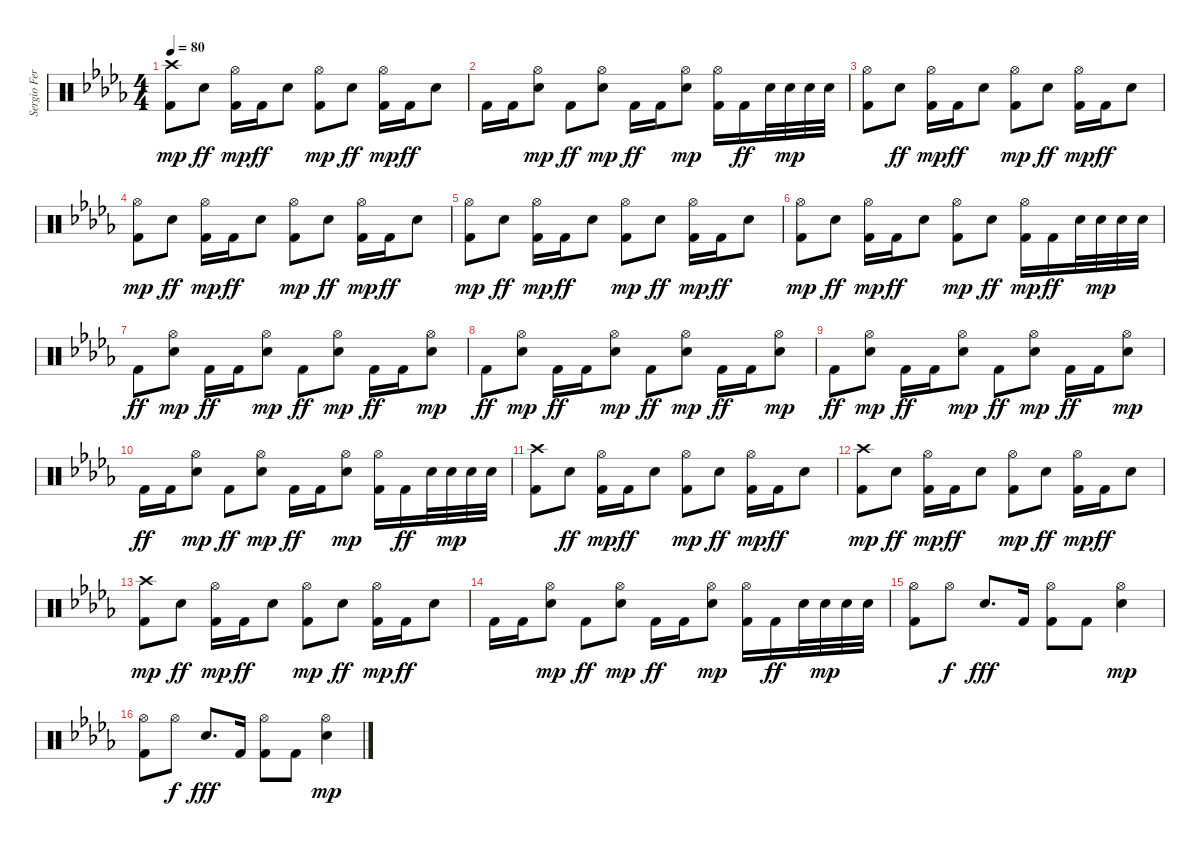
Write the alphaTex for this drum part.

\track ("Sergio Fernandez \"Taz\"" "Sergio Fer") {instrument percussion}
\staff {score}
\articulation defaults
\ts (4 4)
\tempo 80
\clef neutral
\ks bbminor
("Kick (hit) 2" "Crash high (hit)").8{dy mp} "Electric Snare (hit)".8{dy ff} ("Kick (hit) 2" "Hi-Hat (open)").16{dy mp} "Kick (hit) 2".16{dy ff} "Electric Snare (hit)".8 ("Kick (hit) 2" "Hi-Hat (open)").8{dy mp} "Electric Snare (hit)".8{dy ff} ("Kick (hit) 2" "Hi-Hat (open)").16{dy mp} "Kick (hit) 2".16{dy ff} "Electric Snare (hit)".8 |
"Kick (hit) 2".16 "Kick (hit) 2".16 ("Electric Snare (hit)" "Hi-Hat (open)").8{dy mp} "Kick (hit) 2".8{dy ff} ("Electric Snare (hit)" "Hi-Hat (open)").8{dy mp} "Kick (hit) 2".16{dy ff} "Kick (hit) 2".16 ("Electric Snare (hit)" "Hi-Hat (open)").8{dy mp} ("Kick (hit) 2" "Hi-Hat (open)").16 "Kick (hit) 2".16{dy ff} "Electric Snare (hit)".32 "Electric Snare (hit)".32{dy mp} "Electric Snare (hit)".32 "Electric Snare (hit)".32 |
("Kick (hit) 2" "Hi-Hat (open)").8 "Electric Snare (hit)".8{dy ff} ("Kick (hit) 2" "Hi-Hat (open)").16{dy mp} "Kick (hit) 2".16{dy ff} "Electric Snare (hit)".8 ("Kick (hit) 2" "Hi-Hat (open)").8{dy mp} "Electric Snare (hit)".8{dy ff} ("Kick (hit) 2" "Hi-Hat (open)").16{dy mp} "Kick (hit) 2".16{dy ff} "Electric Snare (hit)".8 |
("Kick (hit) 2" "Hi-Hat (open)").8{dy mp} "Electric Snare (hit)".8{dy ff} ("Kick (hit) 2" "Hi-Hat (open)").16{dy mp} "Kick (hit) 2".16{dy ff} "Electric Snare (hit)".8 ("Kick (hit) 2" "Hi-Hat (open)").8{dy mp} "Electric Snare (hit)".8{dy ff} ("Kick (hit) 2" "Hi-Hat (open)").16{dy mp} "Kick (hit) 2".16{dy ff} "Electric Snare (hit)".8 |
("Kick (hit) 2" "Hi-Hat (open)").8{dy mp} "Electric Snare (hit)".8{dy ff} ("Kick (hit) 2" "Hi-Hat (open)").16{dy mp} "Kick (hit) 2".16{dy ff} "Electric Snare (hit)".8 ("Kick (hit) 2" "Hi-Hat (open)").8{dy mp} "Electric Snare (hit)".8{dy ff} ("Kick (hit) 2" "Hi-Hat (open)").16{dy mp} "Kick (hit) 2".16{dy ff} "Electric Snare (hit)".8 |
("Kick (hit) 2" "Hi-Hat (open)").8{dy mp} "Electric Snare (hit)".8{dy ff} ("Kick (hit) 2" "Hi-Hat (open)").16{dy mp} "Kick (hit) 2".16{dy ff} "Electric Snare (hit)".8 ("Kick (hit) 2" "Hi-Hat (open)").8{dy mp} "Electric Snare (hit)".8{dy ff} ("Kick (hit) 2" "Hi-Hat (open)").16{dy mp} "Kick (hit) 2".16{dy ff} "Electric Snare (hit)".32 "Electric Snare (hit)".32{dy mp} "Electric Snare (hit)".32 "Electric Snare (hit)".32 |
"Kick (hit) 2".8{dy ff} ("Electric Snare (hit)" "Hi-Hat (open)").8{dy mp} "Kick (hit) 2".16{dy ff} "Kick (hit) 2".16 ("Electric Snare (hit)" "Hi-Hat (open)").8{dy mp} "Kick (hit) 2".8{dy ff} ("Electric Snare (hit)" "Hi-Hat (open)").8{dy mp} "Kick (hit) 2".16{dy ff} "Kick (hit) 2".16 ("Electric Snare (hit)" "Hi-Hat (open)").8{dy mp} |
"Kick (hit) 2".8{dy ff} ("Electric Snare (hit)" "Hi-Hat (open)").8{dy mp} "Kick (hit) 2".16{dy ff} "Kick (hit) 2".16 ("Electric Snare (hit)" "Hi-Hat (open)").8{dy mp} "Kick (hit) 2".8{dy ff} ("Electric Snare (hit)" "Hi-Hat (open)").8{dy mp} "Kick (hit) 2".16{dy ff} "Kick (hit) 2".16 ("Electric Snare (hit)" "Hi-Hat (open)").8{dy mp} |
"Kick (hit) 2".8{dy ff} ("Electric Snare (hit)" "Hi-Hat (open)").8{dy mp} "Kick (hit) 2".16{dy ff} "Kick (hit) 2".16 ("Electric Snare (hit)" "Hi-Hat (open)").8{dy mp} "Kick (hit) 2".8{dy ff} ("Electric Snare (hit)" "Hi-Hat (open)").8{dy mp} "Kick (hit) 2".16{dy ff} "Kick (hit) 2".16 ("Electric Snare (hit)" "Hi-Hat (open)").8{dy mp} |
"Kick (hit) 2".16{dy ff} "Kick (hit) 2".16 ("Electric Snare (hit)" "Hi-Hat (open)").8{dy mp} "Kick (hit) 2".8{dy ff} ("Electric Snare (hit)" "Hi-Hat (open)").8{dy mp} "Kick (hit) 2".16{dy ff} "Kick (hit) 2".16 ("Electric Snare (hit)" "Hi-Hat (open)").8{dy mp} ("Kick (hit) 2" "Hi-Hat (open)").16 "Kick (hit) 2".16{dy ff} "Electric Snare (hit)".32 "Electric Snare (hit)".32{dy mp} "Electric Snare (hit)".32 "Electric Snare (hit)".32 |
("Kick (hit) 2" "Crash high (hit)").8 "Electric Snare (hit)".8{dy ff} ("Kick (hit) 2" "Hi-Hat (open)").16{dy mp} "Kick (hit) 2".16{dy ff} "Electric Snare (hit)".8 ("Kick (hit) 2" "Hi-Hat (open)").8{dy mp} "Electric Snare (hit)".8{dy ff} ("Kick (hit) 2" "Hi-Hat (open)").16{dy mp} "Kick (hit) 2".16{dy ff} "Electric Snare (hit)".8 |
("Kick (hit) 2" "Crash high (hit)").8{dy mp} "Electric Snare (hit)".8{dy ff} ("Kick (hit) 2" "Hi-Hat (open)").16{dy mp} "Kick (hit) 2".16{dy ff} "Electric Snare (hit)".8 ("Kick (hit) 2" "Hi-Hat (open)").8{dy mp} "Electric Snare (hit)".8{dy ff} ("Kick (hit) 2" "Hi-Hat (open)").16{dy mp} "Kick (hit) 2".16{dy ff} "Electric Snare (hit)".8 |
("Kick (hit) 2" "Crash high (hit)").8{dy mp} "Electric Snare (hit)".8{dy ff} ("Kick (hit) 2" "Hi-Hat (open)").16{dy mp} "Kick (hit) 2".16{dy ff} "Electric Snare (hit)".8 ("Kick (hit) 2" "Hi-Hat (open)").8{dy mp} "Electric Snare (hit)".8{dy ff} ("Kick (hit) 2" "Hi-Hat (open)").16{dy mp} "Kick (hit) 2".16{dy ff} "Electric Snare (hit)".8 |
"Kick (hit) 2".16 "Kick (hit) 2".16 ("Electric Snare (hit)" "Hi-Hat (open)").8{dy mp} "Kick (hit) 2".8{dy ff} ("Electric Snare (hit)" "Hi-Hat (open)").8{dy mp} "Kick (hit) 2".16{dy ff} "Kick (hit) 2".16 ("Electric Snare (hit)" "Hi-Hat (open)").8{dy mp} ("Kick (hit) 2" "Hi-Hat (open)").16 "Kick (hit) 2".16{dy ff} "Electric Snare (hit)".32 "Electric Snare (hit)".32{dy mp} "Electric Snare (hit)".32 "Electric Snare (hit)".32 |
("Kick (hit) 2" "Hi-Hat (open)").8 "Hi-Hat (open)".8{dy f} "Snare (hit) 2".8{d dy fff} "Kick (hit) 2".16 ("Hi-Hat (open)" "Kick (hit) 2").8 "Kick (hit) 2".8 ("Snare (hit) 2" "Hi-Hat (open)").4{dy mp} |
("Kick (hit) 2" "Hi-Hat (open)").8 "Hi-Hat (open)".8{dy f} "Snare (hit) 2".8{d dy fff} "Kick (hit) 2".16 ("Hi-Hat (open)" "Kick (hit) 2").8 "Kick (hit) 2".8 ("Snare (hit) 2" "Hi-Hat (open)").4{dy mp}
